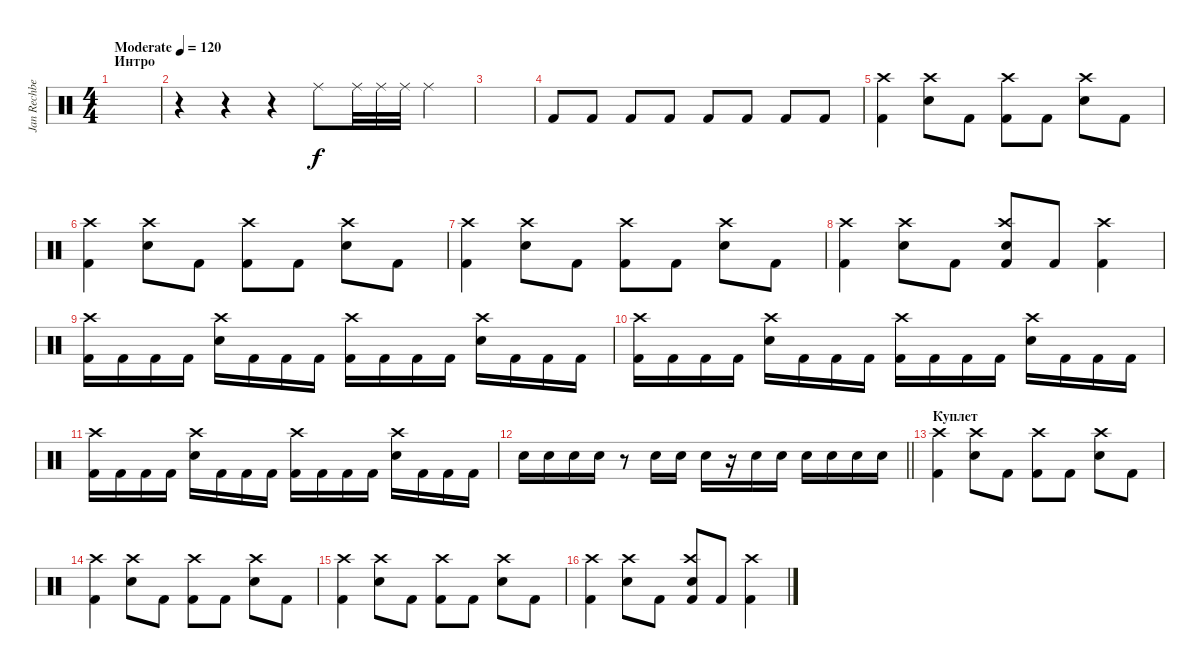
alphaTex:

\track ("Jan Rechberger" "Jan Rechbe") {instrument percussion}
\staff {score}
\articulation defaults
\ts (4 4)
\section ("" "Интро")
\tempo (120 "Moderate")
\clef neutral
\ks c
|
r.4 r.4 r.4 "Ride (middle)".8 "Ride (middle)".32 "Ride (middle)".32 "Ride (middle)".32 "Ride (middle)".4 |
|
"Kick (hit) 2".8 "Kick (hit) 2".8 "Kick (hit) 2".8 "Kick (hit) 2".8 "Kick (hit) 2".8 "Kick (hit) 2".8 "Kick (hit) 2".8 "Kick (hit) 2".8 |
("Crash high (hit)" "Kick (hit) 2").4 ("Crash high (hit)" "Electric Snare (hit)").8 "Kick (hit) 2".8 ("Crash high (hit)" "Kick (hit) 2").8 "Kick (hit) 2".8 ("Crash high (hit)" "Electric Snare (hit)").8 "Kick (hit) 2".8 |
("Crash high (hit)" "Kick (hit) 2").4 ("Crash high (hit)" "Electric Snare (hit)").8 "Kick (hit) 2".8 ("Crash high (hit)" "Kick (hit) 2").8 "Kick (hit) 2".8 ("Crash high (hit)" "Electric Snare (hit)").8 "Kick (hit) 2".8 |
("Crash high (hit)" "Kick (hit) 2").4 ("Crash high (hit)" "Electric Snare (hit)").8 "Kick (hit) 2".8 ("Crash high (hit)" "Kick (hit) 2").8 "Kick (hit) 2".8 ("Crash high (hit)" "Electric Snare (hit)").8 "Kick (hit) 2".8 |
("Crash high (hit)" "Kick (hit) 2").4 ("Crash high (hit)" "Electric Snare (hit)").8 "Kick (hit) 2".8 ("Crash high (hit)" "Electric Snare (hit)" "Kick (hit) 2").8 "Kick (hit) 2".8 ("Crash high (hit)" "Kick (hit) 2").4 |
("Kick (hit) 2" "Crash high (hit)").16 "Kick (hit) 2".16 "Kick (hit) 2".16 "Kick (hit) 2".16 ("Electric Snare (hit)" "Crash high (hit)").16 "Kick (hit) 2".16 "Kick (hit) 2".16 "Kick (hit) 2".16 ("Kick (hit) 2" "Crash high (hit)").16 "Kick (hit) 2".16 "Kick (hit) 2".16 "Kick (hit) 2".16 ("Electric Snare (hit)" "Crash high (hit)").16 "Kick (hit) 2".16 "Kick (hit) 2".16 "Kick (hit) 2".16 |
("Kick (hit) 2" "Crash high (hit)").16 "Kick (hit) 2".16 "Kick (hit) 2".16 "Kick (hit) 2".16 ("Electric Snare (hit)" "Crash high (hit)").16 "Kick (hit) 2".16 "Kick (hit) 2".16 "Kick (hit) 2".16 ("Kick (hit) 2" "Crash high (hit)").16 "Kick (hit) 2".16 "Kick (hit) 2".16 "Kick (hit) 2".16 ("Electric Snare (hit)" "Crash high (hit)").16 "Kick (hit) 2".16 "Kick (hit) 2".16 "Kick (hit) 2".16 |
("Kick (hit) 2" "Crash high (hit)").16 "Kick (hit) 2".16 "Kick (hit) 2".16 "Kick (hit) 2".16 ("Electric Snare (hit)" "Crash high (hit)").16 "Kick (hit) 2".16 "Kick (hit) 2".16 "Kick (hit) 2".16 ("Kick (hit) 2" "Crash high (hit)").16 "Kick (hit) 2".16 "Kick (hit) 2".16 "Kick (hit) 2".16 ("Electric Snare (hit)" "Crash high (hit)").16 "Kick (hit) 2".16 "Kick (hit) 2".16 "Kick (hit) 2".16 |
\barLineRight lightlight "Electric Snare (hit)".16 "Electric Snare (hit)".16 "Electric Snare (hit)".16 "Electric Snare (hit)".16
r.8 "Electric Snare (hit)".16 "Electric Snare (hit)".16 "Electric Snare (hit)".16 r.16 "Electric Snare (hit)".16 "Electric Snare (hit)".16 "Electric Snare (hit)".16 "Electric Snare (hit)".16 "Electric Snare (hit)".16 "Electric Snare (hit)".16 |
\section ("" "Куплет")
("Crash high (hit)" "Kick (hit) 2").4 ("Crash high (hit)" "Electric Snare (hit)").8 "Kick (hit) 2".8 ("Crash high (hit)" "Kick (hit) 2").8 "Kick (hit) 2".8 ("Crash high (hit)" "Electric Snare (hit)").8 "Kick (hit) 2".8 |
("Crash high (hit)" "Kick (hit) 2").4 ("Crash high (hit)" "Electric Snare (hit)").8 "Kick (hit) 2".8 ("Crash high (hit)" "Kick (hit) 2").8 "Kick (hit) 2".8 ("Crash high (hit)" "Electric Snare (hit)").8 "Kick (hit) 2".8 |
("Crash high (hit)" "Kick (hit) 2").4 ("Crash high (hit)" "Electric Snare (hit)").8 "Kick (hit) 2".8 ("Crash high (hit)" "Kick (hit) 2").8 "Kick (hit) 2".8 ("Crash high (hit)" "Electric Snare (hit)").8 "Kick (hit) 2".8 |
("Crash high (hit)" "Kick (hit) 2").4 ("Crash high (hit)" "Electric Snare (hit)").8 "Kick (hit) 2".8 ("Crash high (hit)" "Electric Snare (hit)" "Kick (hit) 2").8 "Kick (hit) 2".8 ("Crash high (hit)" "Kick (hit) 2").4
